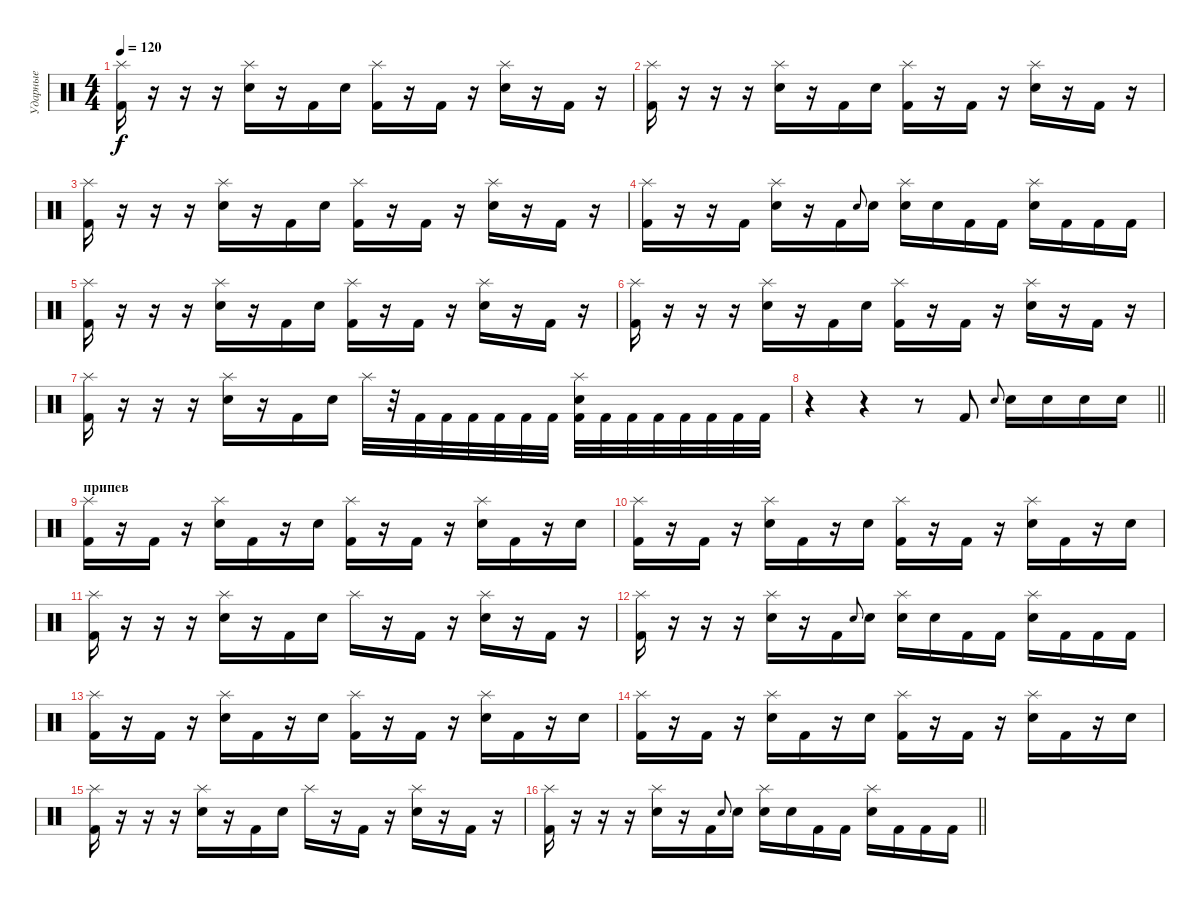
\track ("Ударные" "Ударные") {instrument percussion}
\staff {score}
\articulation defaults
\ts (4 4)
\section ("" "")
\tempo 120
\clef neutral
\ks c
("Splash (hit)" "Kick (hit) 2").16{dy f} r.16 r.16 r.16 ("Splash (hit)" "Electric Snare (hit)").16 r.16 "Kick (hit) 2".16 "Electric Snare (hit)".16 ("Splash (hit)" "Kick (hit) 2").16 r.16 "Kick (hit) 2".16 r.16 ("Splash (hit)" "Electric Snare (hit)").16 r.16 "Kick (hit) 2".16 r.16 |
("Splash (hit)" "Kick (hit) 2").16 r.16 r.16 r.16 ("Splash (hit)" "Electric Snare (hit)").16 r.16 "Kick (hit) 2".16 "Electric Snare (hit)".16 ("Splash (hit)" "Kick (hit) 2").16 r.16 "Kick (hit) 2".16 r.16 ("Splash (hit)" "Electric Snare (hit)").16 r.16 "Kick (hit) 2".16 r.16 |
("Splash (hit)" "Kick (hit) 2").16 r.16 r.16 r.16 ("Splash (hit)" "Electric Snare (hit)").16 r.16 "Kick (hit) 2".16 "Electric Snare (hit)".16 ("Splash (hit)" "Kick (hit) 2").16 r.16 "Kick (hit) 2".16 r.16 ("Splash (hit)" "Electric Snare (hit)").16 r.16 "Kick (hit) 2".16 r.16 |
("Splash (hit)" "Kick (hit) 2").16 r.16 r.16 "Kick (hit) 2".16 ("Splash (hit)" "Electric Snare (hit)").16 r.16 "Kick (hit) 2".16 "Electric Snare (hit)".8{gr onbeat} "Electric Snare (hit)".16 ("Splash (hit)" "Electric Snare (hit)").16 "Electric Snare (hit)".16 "Kick (hit) 2".16 "Kick (hit) 2".16 ("Splash (hit)" "Electric Snare (hit)").16 "Kick (hit) 2".16 "Kick (hit) 2".16 "Kick (hit) 2".16 |
("Splash (hit)" "Kick (hit) 2").16 r.16 r.16 r.16 ("Splash (hit)" "Electric Snare (hit)").16 r.16 "Kick (hit) 2".16 "Electric Snare (hit)".16 ("Splash (hit)" "Kick (hit) 2").16 r.16 "Kick (hit) 2".16 r.16 ("Splash (hit)" "Electric Snare (hit)").16 r.16 "Kick (hit) 2".16 r.16 |
("Splash (hit)" "Kick (hit) 2").16 r.16 r.16 r.16 ("Splash (hit)" "Electric Snare (hit)").16 r.16 "Kick (hit) 2".16 "Electric Snare (hit)".16 ("Splash (hit)" "Kick (hit) 2").16 r.16 "Kick (hit) 2".16 r.16 ("Splash (hit)" "Electric Snare (hit)").16 r.16 "Kick (hit) 2".16 r.16 |
("Splash (hit)" "Kick (hit) 2").16 r.16 r.16 r.16 ("Splash (hit)" "Electric Snare (hit)").16 r.16 "Kick (hit) 2".16 "Electric Snare (hit)".16 "Splash (hit)".32 r.32 "Kick (hit) 2".32 "Kick (hit) 2".32 "Kick (hit) 2".32 "Kick (hit) 2".32 "Kick (hit) 2".32 "Kick (hit) 2".32 ("Splash (hit)" "Electric Snare (hit)" "Kick (hit) 2").32 "Kick (hit) 2".32 "Kick (hit) 2".32 "Kick (hit) 2".32 "Kick (hit) 2".32 "Kick (hit) 2".32 "Kick (hit) 2".32 "Kick (hit) 2".32 |
\barLineRight lightlight
r.4 r.4 r.8 "Kick (hit) 2".8 "Electric Snare (hit)".8{gr onbeat} "Electric Snare (hit)".16 "Electric Snare (hit)".16 "Electric Snare (hit)".16 "Electric Snare (hit)".16 |
\section ("" "припев")
("Splash (hit)" "Kick (hit) 2").16 r.16 "Kick (hit) 2".16 r.16 ("Splash (hit)" "Electric Snare (hit)").16 "Kick (hit) 2".16 r.16 "Electric Snare (hit)".16 ("Splash (hit)" "Kick (hit) 2").16 r.16 "Kick (hit) 2".16 r.16 ("Splash (hit)" "Electric Snare (hit)").16 "Kick (hit) 2".16 r.16 "Electric Snare (hit)".16 |
("Splash (hit)" "Kick (hit) 2").16 r.16 "Kick (hit) 2".16 r.16 ("Splash (hit)" "Electric Snare (hit)").16 "Kick (hit) 2".16 r.16 "Electric Snare (hit)".16 ("Splash (hit)" "Kick (hit) 2").16 r.16 "Kick (hit) 2".16 r.16 ("Splash (hit)" "Electric Snare (hit)").16 "Kick (hit) 2".16 r.16 "Electric Snare (hit)".16 |
("Splash (hit)" "Kick (hit) 2").16 r.16 r.16 r.16 ("Splash (hit)" "Electric Snare (hit)").16 r.16 "Kick (hit) 2".16 "Electric Snare (hit)".16 "Splash (hit)".16 r.16 "Kick (hit) 2".16 r.16 ("Splash (hit)" "Electric Snare (hit)").16 r.16 "Kick (hit) 2".16 r.16 |
("Splash (hit)" "Kick (hit) 2").16 r.16 r.16 r.16 ("Splash (hit)" "Electric Snare (hit)").16 r.16 "Kick (hit) 2".16 "Electric Snare (hit)".8{gr onbeat} "Electric Snare (hit)".16 ("Splash (hit)" "Electric Snare (hit)").16 "Electric Snare (hit)".16 "Kick (hit) 2".16 "Kick (hit) 2".16 ("Splash (hit)" "Electric Snare (hit)").16 "Kick (hit) 2".16 "Kick (hit) 2".16 "Kick (hit) 2".16 |
("Splash (hit)" "Kick (hit) 2").16 r.16 "Kick (hit) 2".16 r.16 ("Splash (hit)" "Electric Snare (hit)").16 "Kick (hit) 2".16 r.16 "Electric Snare (hit)".16 ("Splash (hit)" "Kick (hit) 2").16 r.16 "Kick (hit) 2".16 r.16 ("Splash (hit)" "Electric Snare (hit)").16 "Kick (hit) 2".16 r.16 "Electric Snare (hit)".16 |
("Splash (hit)" "Kick (hit) 2").16 r.16 "Kick (hit) 2".16 r.16 ("Splash (hit)" "Electric Snare (hit)").16 "Kick (hit) 2".16 r.16 "Electric Snare (hit)".16 ("Splash (hit)" "Kick (hit) 2").16 r.16 "Kick (hit) 2".16 r.16 ("Splash (hit)" "Electric Snare (hit)").16 "Kick (hit) 2".16 r.16 "Electric Snare (hit)".16 |
("Splash (hit)" "Kick (hit) 2").16 r.16 r.16 r.16 ("Splash (hit)" "Electric Snare (hit)").16 r.16 "Kick (hit) 2".16 "Electric Snare (hit)".16 "Splash (hit)".16 r.16 "Kick (hit) 2".16 r.16 ("Splash (hit)" "Electric Snare (hit)").16 r.16 "Kick (hit) 2".16 r.16 |
\barLineRight lightlight
("Splash (hit)" "Kick (hit) 2").16 r.16 r.16 r.16 ("Splash (hit)" "Electric Snare (hit)").16 r.16 "Kick (hit) 2".16 "Electric Snare (hit)".8{gr onbeat} "Electric Snare (hit)".16 ("Splash (hit)" "Electric Snare (hit)").16 "Electric Snare (hit)".16 "Kick (hit) 2".16 "Kick (hit) 2".16 ("Splash (hit)" "Electric Snare (hit)").16 "Kick (hit) 2".16 "Kick (hit) 2".16 "Kick (hit) 2".16
